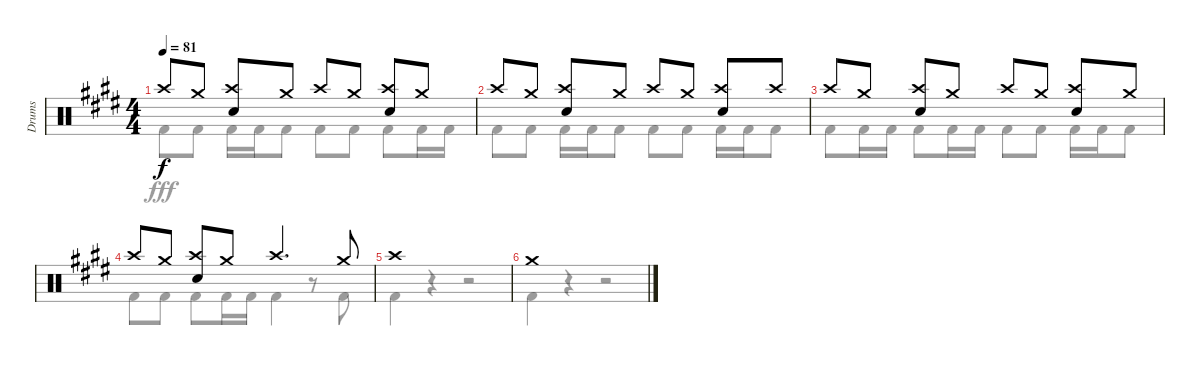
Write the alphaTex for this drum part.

\track ("Drums" "Drums") {instrument percussion}
\staff {score}
\articulation defaults
\voice
\ts (4 4)
\tempo 81
\clef neutral
\ks e "Crash high (hit)".8{dy f} "Crash medium (hit)".8
("Crash high (hit)" "Snare (hit) 2").8 "Crash medium (hit)".8 "Crash high (hit)".8 "Crash medium (hit)".8 ("Crash high (hit)" "Snare (hit) 2").8 "Crash medium (hit)".8 |
"Crash high (hit)".8 "Crash medium (hit)".8 ("Crash high (hit)" "Snare (hit) 2").8 "Crash medium (hit)".8 "Crash high (hit)".8 "Crash medium (hit)".8 ("Crash high (hit)" "Snare (hit) 2").8 "Crash high (hit)".8 |
"Crash high (hit)".8 "Crash medium (hit)".8 ("Crash high (hit)" "Snare (hit) 2").8 "Crash medium (hit)".8 "Crash high (hit)".8 "Crash medium (hit)".8 ("Crash high (hit)" "Snare (hit) 2").8 "Crash medium (hit)".8 |
"Crash high (hit)".8 "Crash medium (hit)".8 ("Crash high (hit)" "Snare (hit) 2").8 "Crash medium (hit)".8 "Crash high (hit)".4{d} "Crash medium (hit)".8 |
"Crash high (hit)".1 |
"Crash medium (hit)".1
\voice
\clef neutral
\ottava regular
\simile none
\ks e "Kick (hit) 2".8{dy fff} "Kick (hit) 2".8 "Kick (hit) 2".16 "Kick (hit) 2".16 "Kick (hit) 2".8 "Kick (hit) 2".8 "Kick (hit) 2".8 "Kick (hit) 2".8 "Kick (hit) 2".16 "Kick (hit) 2".16
|
"Kick (hit) 2".8 "Kick (hit) 2".8 "Kick (hit) 2".16 "Kick (hit) 2".16 "Kick (hit) 2".8 "Kick (hit) 2".8 "Kick (hit) 2".8 "Kick (hit) 2".16 "Kick (hit) 2".16 "Kick (hit) 2".8 |
"Kick (hit) 2".8 "Kick (hit) 2".16 "Kick (hit) 2".16 "Kick (hit) 2".8 "Kick (hit) 2".16 "Kick (hit) 2".16 "Kick (hit) 2".8 "Kick (hit) 2".8 "Kick (hit) 2".16 "Kick (hit) 2".16 "Kick (hit) 2".8 |
"Kick (hit) 2".8 "Kick (hit) 2".8 "Kick (hit) 2".8 "Kick (hit) 2".16 "Kick (hit) 2".16 "Kick (hit) 2".4 r.8 "Kick (hit) 2".8 |
"Kick (hit) 2".4 r.4 r.2 |
"Kick (hit) 2".4 r.4 r.2
